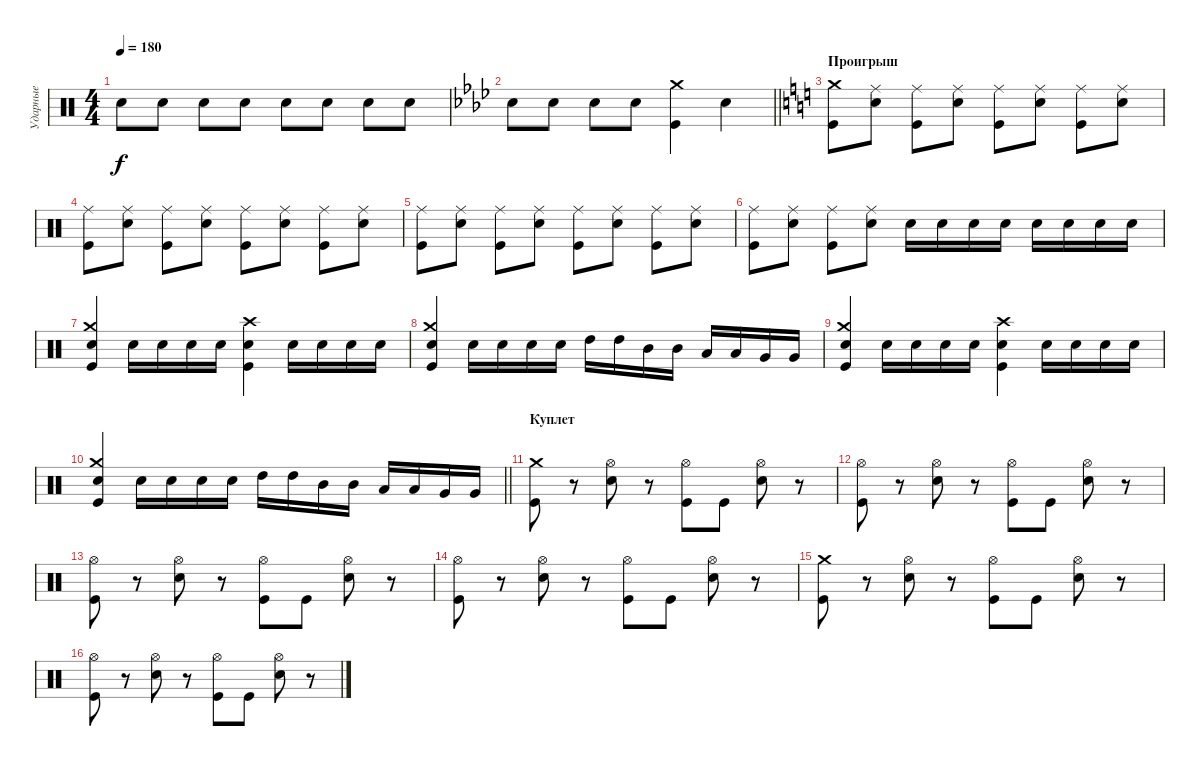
\track ("Ударные" "Ударные") {instrument percussion}
\staff {score}
\articulation defaults
\ts (4 4)
\tempo 180
\clef neutral
\ks c "Electric Snare (hit)".8{dy f} "Electric Snare (hit)".8 "Electric Snare (hit)".8 "Electric Snare (hit)".8 "Electric Snare (hit)".8 "Electric Snare (hit)".8 "Electric Snare (hit)".8 "Electric Snare (hit)".8
|
\barLineRight lightlight
\ks ab "Electric Snare (hit)".8 "Electric Snare (hit)".8 "Electric Snare (hit)".8 "Electric Snare (hit)".8
("Crash medium (hit)" "Kick (hit)").4 "Electric Snare (hit)".4 |
\section ("" "Проигрыш")
\ks c
("Crash medium (hit)" "Kick (hit)").8 ("Ride (middle)" "Electric Snare (hit)").8 ("Ride (middle)" "Kick (hit)").8 ("Ride (middle)" "Electric Snare (hit)").8 ("Ride (middle)" "Kick (hit)").8 ("Ride (middle)" "Electric Snare (hit)").8 ("Ride (middle)" "Kick (hit)").8 ("Ride (middle)" "Electric Snare (hit)").8 |
("Ride (middle)" "Kick (hit)").8 ("Ride (middle)" "Electric Snare (hit)").8 ("Ride (middle)" "Kick (hit)").8 ("Ride (middle)" "Electric Snare (hit)").8 ("Ride (middle)" "Kick (hit)").8 ("Ride (middle)" "Electric Snare (hit)").8 ("Ride (middle)" "Kick (hit)").8 ("Ride (middle)" "Electric Snare (hit)").8 |
("Ride (middle)" "Kick (hit)").8 ("Ride (middle)" "Electric Snare (hit)").8 ("Ride (middle)" "Kick (hit)").8 ("Ride (middle)" "Electric Snare (hit)").8 ("Ride (middle)" "Kick (hit)").8 ("Ride (middle)" "Electric Snare (hit)").8 ("Ride (middle)" "Kick (hit)").8 ("Ride (middle)" "Electric Snare (hit)").8 |
("Ride (middle)" "Kick (hit)").8 ("Ride (middle)" "Electric Snare (hit)").8 ("Ride (middle)" "Kick (hit)").8 ("Ride (middle)" "Electric Snare (hit)").8 "Electric Snare (hit)".16 "Electric Snare (hit)".16 "Electric Snare (hit)".16 "Electric Snare (hit)".16 "Electric Snare (hit)".16 "Electric Snare (hit)".16 "Electric Snare (hit)".16 "Electric Snare (hit)".16 |
("Crash medium (hit)" "Kick (hit)" "Electric Snare (hit)").4 "Electric Snare (hit)".16 "Electric Snare (hit)".16 "Electric Snare (hit)".16 "Electric Snare (hit)".16 ("Crash high (hit)" "Kick (hit)" "Electric Snare (hit)").4 "Electric Snare (hit)".16 "Electric Snare (hit)".16 "Electric Snare (hit)".16 "Electric Snare (hit)".16 |
("Crash medium (hit)" "Kick (hit)" "Electric Snare (hit)").4 "Electric Snare (hit)".16 "Electric Snare (hit)".16 "Electric Snare (hit)".16 "Electric Snare (hit)".16 "High Tom (hit)".16 "High Tom (hit)".16 "Mid Tom (hit)".16 "Mid Tom (hit)".16 "Low Tom (hit)".16 "Low Tom (hit)".16 "Very Low Tom (hit)".16 "Very Low Tom (hit)".16 |
("Crash medium (hit)" "Kick (hit)" "Electric Snare (hit)").4 "Electric Snare (hit)".16 "Electric Snare (hit)".16 "Electric Snare (hit)".16 "Electric Snare (hit)".16 ("Crash high (hit)" "Kick (hit)" "Electric Snare (hit)").4 "Electric Snare (hit)".16 "Electric Snare (hit)".16 "Electric Snare (hit)".16 "Electric Snare (hit)".16 |
\barLineRight lightlight
("Crash medium (hit)" "Kick (hit)" "Electric Snare (hit)").4 "Electric Snare (hit)".16 "Electric Snare (hit)".16 "Electric Snare (hit)".16 "Electric Snare (hit)".16 "High Tom (hit)".16 "High Tom (hit)".16 "Mid Tom (hit)".16 "Mid Tom (hit)".16 "Low Tom (hit)".16 "Low Tom (hit)".16 "Very Low Tom (hit)".16 "Very Low Tom (hit)".16 |
\section ("" "Куплет")
("Crash medium (hit)" "Kick (hit)").8 r.8 ("Hi-Hat (open)" "Electric Snare (hit)").8 r.8 ("Hi-Hat (open)" "Kick (hit)").8 "Kick (hit)".8 ("Hi-Hat (open)" "Electric Snare (hit)").8 r.8 |
("Hi-Hat (open)" "Kick (hit)").8 r.8 ("Hi-Hat (open)" "Electric Snare (hit)").8 r.8 ("Hi-Hat (open)" "Kick (hit)").8 "Kick (hit)".8 ("Hi-Hat (open)" "Electric Snare (hit)").8 r.8 |
("Hi-Hat (open)" "Kick (hit)").8 r.8 ("Hi-Hat (open)" "Electric Snare (hit)").8 r.8 ("Hi-Hat (open)" "Kick (hit)").8 "Kick (hit)".8 ("Hi-Hat (open)" "Electric Snare (hit)").8 r.8 |
("Hi-Hat (open)" "Kick (hit)").8 r.8 ("Hi-Hat (open)" "Electric Snare (hit)").8 r.8 ("Hi-Hat (open)" "Kick (hit)").8 "Kick (hit)".8 ("Hi-Hat (open)" "Electric Snare (hit)").8 r.8 |
("Crash medium (hit)" "Kick (hit)").8 r.8 ("Hi-Hat (open)" "Electric Snare (hit)").8 r.8 ("Hi-Hat (open)" "Kick (hit)").8 "Kick (hit)".8 ("Hi-Hat (open)" "Electric Snare (hit)").8 r.8 |
("Hi-Hat (open)" "Kick (hit)").8 r.8 ("Hi-Hat (open)" "Electric Snare (hit)").8 r.8 ("Hi-Hat (open)" "Kick (hit)").8 "Kick (hit)".8 ("Hi-Hat (open)" "Electric Snare (hit)").8 r.8
